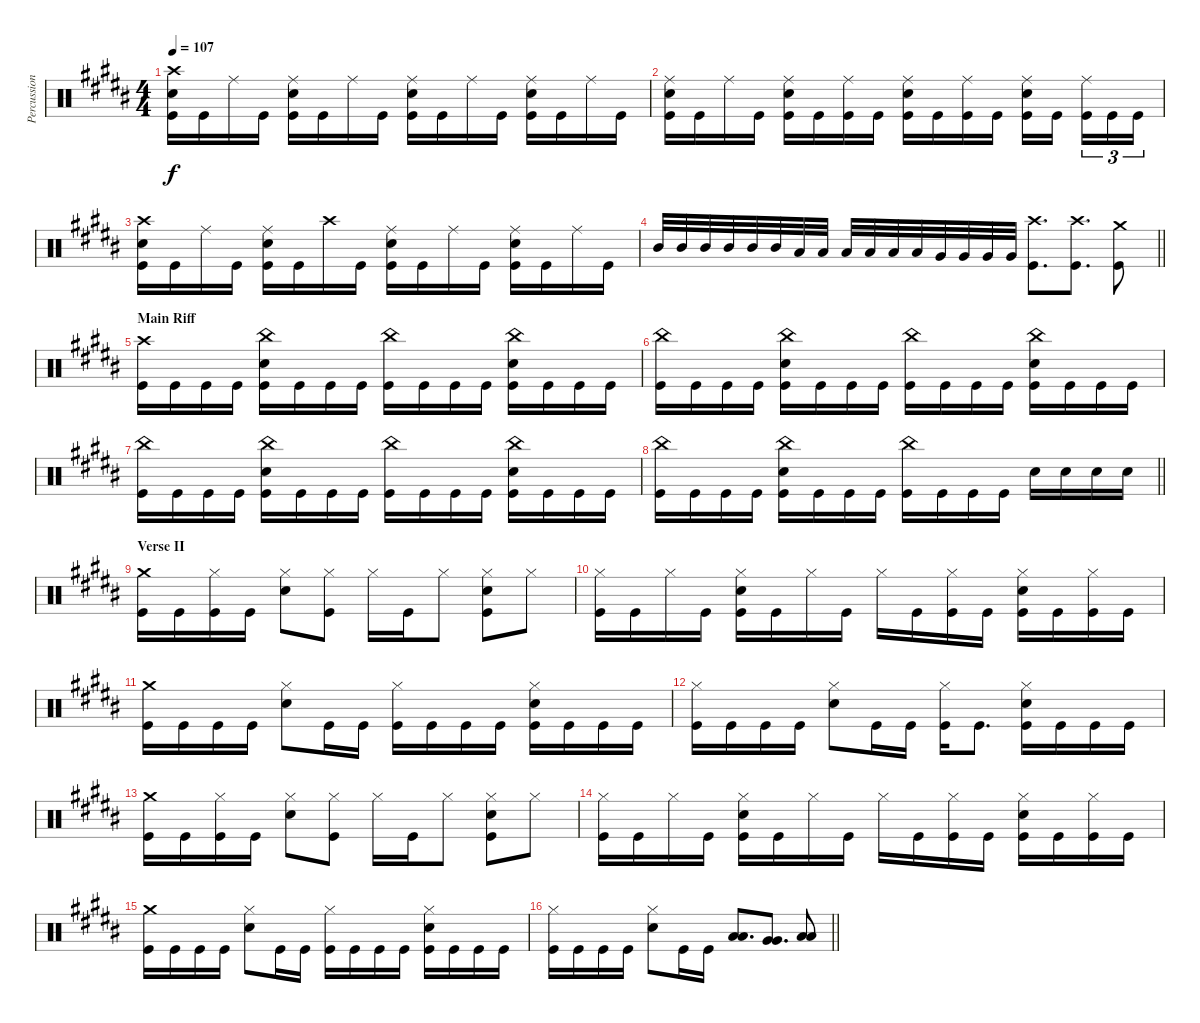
\track ("Percussion" "Percussion") {instrument percussion}
\staff {score}
\articulation defaults
\ts (4 4)
\tempo 107
\clef neutral
\ks b
("Crash high (hit)" "Electric Snare (hit)" "Kick (hit)").16{dy f} "Kick (hit)".16 "Ride (middle)".16 "Kick (hit)".16 ("Ride (middle)" "Electric Snare (hit)" "Kick (hit)").16 "Kick (hit)".16 "Ride (middle)".16 "Kick (hit)".16 ("Ride (middle)" "Electric Snare (hit)" "Kick (hit)").16 "Kick (hit)".16 "Ride (middle)".16 "Kick (hit)".16 ("Ride (middle)" "Electric Snare (hit)" "Kick (hit)").16 "Kick (hit)".16 "Ride (middle)".16 "Kick (hit)".16 |
("Ride (middle)" "Electric Snare (hit)" "Kick (hit)").16 "Kick (hit)".16 "Ride (middle)".16 "Kick (hit)".16 ("Ride (middle)" "Electric Snare (hit)" "Kick (hit)").16 "Kick (hit)".16 ("Ride (middle)" "Kick (hit)").16 "Kick (hit)".16 ("Ride (middle)" "Electric Snare (hit)" "Kick (hit)").16 "Kick (hit)".16 ("Ride (middle)" "Kick (hit)").16 "Kick (hit)".16 ("Ride (middle)" "Electric Snare (hit)" "Kick (hit)").16 "Kick (hit)".16{beam splitsecondary} ("Ride (middle)" "Kick (hit)").16{tu (3 2)} "Kick (hit)".16{tu (3 2)} "Kick (hit)".16{tu (3 2)} |
("Crash high (hit)" "Electric Snare (hit)" "Kick (hit)").16 "Kick (hit)".16 "Ride (middle)".16 "Kick (hit)".16 ("Ride (middle)" "Electric Snare (hit)" "Kick (hit)").16 "Kick (hit)".16 "Crash high (hit)".16 "Kick (hit)".16 ("Ride (middle)" "Electric Snare (hit)" "Kick (hit)").16 "Kick (hit)".16 "Ride (middle)".16 "Kick (hit)".16 ("Ride (middle)" "Electric Snare (hit)" "Kick (hit)").16 "Kick (hit)".16 "Ride (middle)".16 "Kick (hit)".16 |
\barLineRight lightlight "Mid Tom (hit)".32 "Mid Tom (hit)".32 "Mid Tom (hit)".32 "Mid Tom (hit)".32 "Mid Tom (hit)".32 "Mid Tom (hit)".32 "Low Tom (hit)".32 "Low Tom (hit)".32 "Low Tom (hit)".32 "Low Tom (hit)".32 "Low Tom (hit)".32 "Low Tom (hit)".32 "Very Low Tom (hit)".32 "Very Low Tom (hit)".32 "Very Low Tom (hit)".32 "Very Low Tom (hit)".32
("Crash high (hit)" "Kick (hit)").8{d} ("Crash high (hit)" "Kick (hit)").8{d} ("Crash medium (hit)" "Kick (hit)").8 |
\section ("" "Main Riff")
("Crash high (hit)" "Kick (hit)").16 "Kick (hit)".16 "Kick (hit)".16 "Kick (hit)".16 ("China (hit)" "Electric Snare (hit)" "Kick (hit)").16 "Kick (hit)".16 "Kick (hit)".16 "Kick (hit)".16 ("China (hit)" "Kick (hit)").16 "Kick (hit)".16 "Kick (hit)".16 "Kick (hit)".16 ("China (hit)" "Electric Snare (hit)" "Kick (hit)").16 "Kick (hit)".16 "Kick (hit)".16 "Kick (hit)".16 |
("China (hit)" "Kick (hit)").16 "Kick (hit)".16 "Kick (hit)".16 "Kick (hit)".16 ("China (hit)" "Electric Snare (hit)" "Kick (hit)").16 "Kick (hit)".16 "Kick (hit)".16 "Kick (hit)".16 ("China (hit)" "Kick (hit)").16 "Kick (hit)".16 "Kick (hit)".16 "Kick (hit)".16 ("China (hit)" "Electric Snare (hit)" "Kick (hit)").16 "Kick (hit)".16 "Kick (hit)".16 "Kick (hit)".16 |
("China (hit)" "Kick (hit)").16 "Kick (hit)".16 "Kick (hit)".16 "Kick (hit)".16 ("China (hit)" "Electric Snare (hit)" "Kick (hit)").16 "Kick (hit)".16 "Kick (hit)".16 "Kick (hit)".16 ("China (hit)" "Kick (hit)").16 "Kick (hit)".16 "Kick (hit)".16 "Kick (hit)".16 ("China (hit)" "Electric Snare (hit)" "Kick (hit)").16 "Kick (hit)".16 "Kick (hit)".16 "Kick (hit)".16 |
\barLineRight lightlight
("China (hit)" "Kick (hit)").16 "Kick (hit)".16 "Kick (hit)".16 "Kick (hit)".16 ("China (hit)" "Electric Snare (hit)" "Kick (hit)").16 "Kick (hit)".16 "Kick (hit)".16 "Kick (hit)".16 ("China (hit)" "Kick (hit)").16 "Kick (hit)".16 "Kick (hit)".16 "Kick (hit)".16 "Electric Snare (hit)".16 "Electric Snare (hit)".16 "Electric Snare (hit)".16 "Electric Snare (hit)".16 |
\section ("" "Verse II")
("Crash medium (hit)" "Kick (hit)").16 "Kick (hit)".16 ("Hi-Hat (closed)" "Kick (hit)").16 "Kick (hit)".16 ("Hi-Hat (closed)" "Electric Snare (hit)").8 ("Hi-Hat (closed)" "Kick (hit)").8 "Hi-Hat (closed)".16 "Kick (hit)".16 "Hi-Hat (closed)".8 ("Hi-Hat (closed)" "Electric Snare (hit)" "Kick (hit)").8 "Hi-Hat (closed)".8 |
("Hi-Hat (closed)" "Kick (hit)").16 "Kick (hit)".16 "Hi-Hat (closed)".16 "Kick (hit)".16 ("Hi-Hat (closed)" "Electric Snare (hit)" "Kick (hit)").16 "Kick (hit)".16 "Hi-Hat (closed)".16 "Kick (hit)".16 "Hi-Hat (closed)".16 "Kick (hit)".16 ("Hi-Hat (closed)" "Kick (hit)").16 "Kick (hit)".16 ("Hi-Hat (closed)" "Electric Snare (hit)" "Kick (hit)").16 "Kick (hit)".16 ("Hi-Hat (closed)" "Kick (hit)").16 "Kick (hit)".16 |
("Crash medium (hit)" "Kick (hit)").16 "Kick (hit)".16 "Kick (hit)".16 "Kick (hit)".16 ("Hi-Hat (closed)" "Electric Snare (hit)").8 "Kick (hit)".16 "Kick (hit)".16 ("Hi-Hat (closed)" "Kick (hit)").16 "Kick (hit)".16 "Kick (hit)".16 "Kick (hit)".16 ("Hi-Hat (closed)" "Electric Snare (hit)" "Kick (hit)").16 "Kick (hit)".16 "Kick (hit)".16 "Kick (hit)".16 |
("Hi-Hat (closed)" "Kick (hit)").16 "Kick (hit)".16 "Kick (hit)".16 "Kick (hit)".16 ("Hi-Hat (closed)" "Electric Snare (hit)").8 "Kick (hit)".16 "Kick (hit)".16 ("Hi-Hat (closed)" "Kick (hit)").16 "Kick (hit)".8{d} ("Hi-Hat (closed)" "Electric Snare (hit)" "Kick (hit)").16 "Kick (hit)".16 "Kick (hit)".16 "Kick (hit)".16 |
("Crash medium (hit)" "Kick (hit)").16 "Kick (hit)".16 ("Hi-Hat (closed)" "Kick (hit)").16 "Kick (hit)".16 ("Hi-Hat (closed)" "Electric Snare (hit)").8 ("Hi-Hat (closed)" "Kick (hit)").8 "Hi-Hat (closed)".16 "Kick (hit)".16 "Hi-Hat (closed)".8 ("Hi-Hat (closed)" "Electric Snare (hit)" "Kick (hit)").8 "Hi-Hat (closed)".8 |
("Hi-Hat (closed)" "Kick (hit)").16 "Kick (hit)".16 "Hi-Hat (closed)".16 "Kick (hit)".16 ("Hi-Hat (closed)" "Electric Snare (hit)" "Kick (hit)").16 "Kick (hit)".16 "Hi-Hat (closed)".16 "Kick (hit)".16 "Hi-Hat (closed)".16 "Kick (hit)".16 ("Hi-Hat (closed)" "Kick (hit)").16 "Kick (hit)".16 ("Hi-Hat (closed)" "Electric Snare (hit)" "Kick (hit)").16 "Kick (hit)".16 ("Hi-Hat (closed)" "Kick (hit)").16 "Kick (hit)".16 |
("Crash medium (hit)" "Kick (hit)").16 "Kick (hit)".16 "Kick (hit)".16 "Kick (hit)".16 ("Hi-Hat (closed)" "Electric Snare (hit)").8 "Kick (hit)".16 "Kick (hit)".16 ("Hi-Hat (closed)" "Kick (hit)").16 "Kick (hit)".16 "Kick (hit)".16 "Kick (hit)".16 ("Hi-Hat (closed)" "Electric Snare (hit)" "Kick (hit)").16 "Kick (hit)".16 "Kick (hit)".16 "Kick (hit)".16 |
\barLineRight lightlight
("Hi-Hat (closed)" "Kick (hit)").16 "Kick (hit)".16 "Kick (hit)".16 "Kick (hit)".16 ("Hi-Hat (closed)" "Electric Snare (hit)").8 "Kick (hit)".16 "Kick (hit)".16 ("Low Tom (hit)" "Low Tom (hit)").8{d} ("Very Low Tom (hit)" "Very Low Tom (hit)").8{d} ("Low Floor Tom (hit)" "Low Floor Tom (hit)").8
